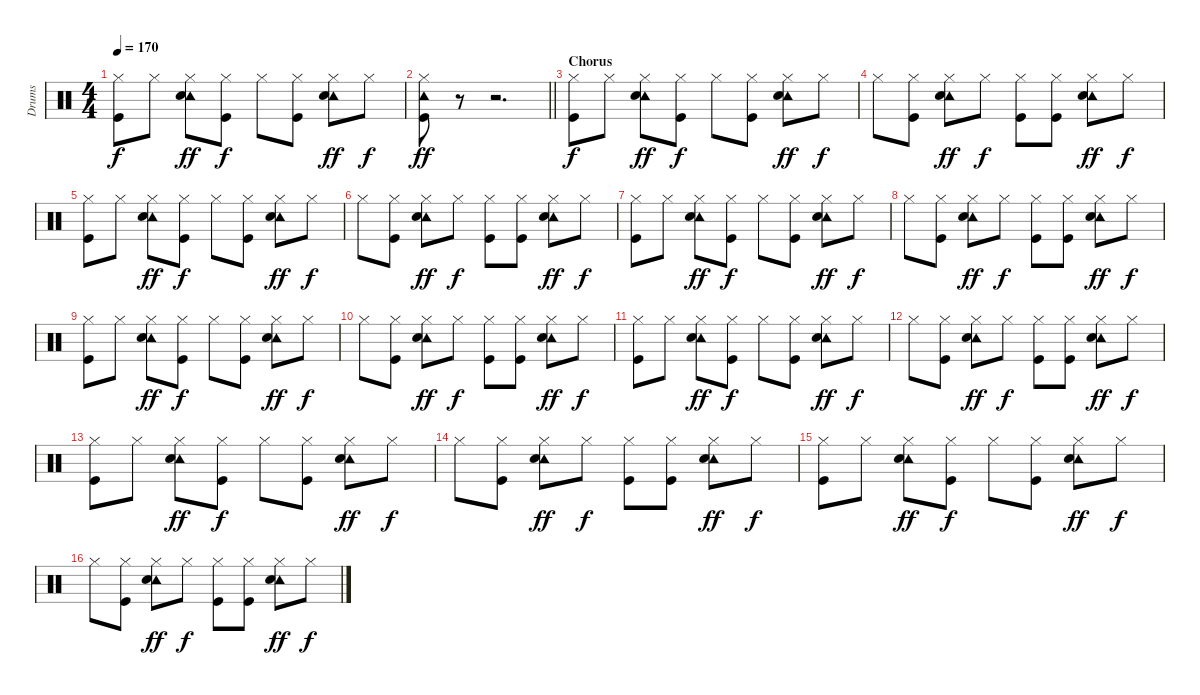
\track ("Drums" "Drums") {instrument percussion}
\staff {score}
\articulation defaults
\ts (4 4)
\tempo 170
\clef neutral
\ks c
("Hi-Hat (closed)" "Kick (hit)").8{dy f} "Hi-Hat (closed)".8 ("Tambourine (hit)" "Hi-Hat (closed)" "Snare (hit) 2").8{dy ff} ("Hi-Hat (closed)" "Kick (hit)").8{dy f} "Hi-Hat (closed)".8 ("Hi-Hat (closed)" "Kick (hit)").8 ("Tambourine (hit)" "Hi-Hat (closed)" "Snare (hit) 2").8{dy ff} "Hi-Hat (closed)".8{dy f} |
\barLineRight lightlight
("Tambourine (hit)" "Hi-Hat (closed)" "Kick (hit)").8{dy ff} r.8 r.2{d} |
\section ("" "Chorus")
("Hi-Hat (closed)" "Kick (hit)").8{dy f} "Hi-Hat (closed)".8 ("Tambourine (hit)" "Hi-Hat (closed)" "Snare (hit) 2").8{dy ff} ("Hi-Hat (closed)" "Kick (hit)").8{dy f} "Hi-Hat (closed)".8 ("Hi-Hat (closed)" "Kick (hit)").8 ("Tambourine (hit)" "Hi-Hat (closed)" "Snare (hit) 2").8{dy ff} "Hi-Hat (closed)".8{dy f} |
"Hi-Hat (closed)".8 ("Hi-Hat (closed)" "Kick (hit)").8 ("Tambourine (hit)" "Hi-Hat (closed)" "Snare (hit) 2").8{dy ff} "Hi-Hat (closed)".8{dy f} ("Hi-Hat (closed)" "Kick (hit)").8 ("Hi-Hat (closed)" "Kick (hit)").8 ("Tambourine (hit)" "Hi-Hat (closed)" "Snare (hit) 2").8{dy ff} "Hi-Hat (closed)".8{dy f} |
("Hi-Hat (closed)" "Kick (hit)").8 "Hi-Hat (closed)".8 ("Tambourine (hit)" "Hi-Hat (closed)" "Snare (hit) 2").8{dy ff} ("Hi-Hat (closed)" "Kick (hit)").8{dy f} "Hi-Hat (closed)".8 ("Hi-Hat (closed)" "Kick (hit)").8 ("Tambourine (hit)" "Hi-Hat (closed)" "Snare (hit) 2").8{dy ff} "Hi-Hat (closed)".8{dy f} |
"Hi-Hat (closed)".8 ("Hi-Hat (closed)" "Kick (hit)").8 ("Tambourine (hit)" "Hi-Hat (closed)" "Snare (hit) 2").8{dy ff} "Hi-Hat (closed)".8{dy f} ("Hi-Hat (closed)" "Kick (hit)").8 ("Hi-Hat (closed)" "Kick (hit)").8 ("Tambourine (hit)" "Hi-Hat (closed)" "Snare (hit) 2").8{dy ff} "Hi-Hat (closed)".8{dy f} |
("Hi-Hat (closed)" "Kick (hit)").8 "Hi-Hat (closed)".8 ("Tambourine (hit)" "Hi-Hat (closed)" "Snare (hit) 2").8{dy ff} ("Hi-Hat (closed)" "Kick (hit)").8{dy f} "Hi-Hat (closed)".8 ("Hi-Hat (closed)" "Kick (hit)").8 ("Tambourine (hit)" "Hi-Hat (closed)" "Snare (hit) 2").8{dy ff} "Hi-Hat (closed)".8{dy f} |
"Hi-Hat (closed)".8 ("Hi-Hat (closed)" "Kick (hit)").8 ("Tambourine (hit)" "Hi-Hat (closed)" "Snare (hit) 2").8{dy ff} "Hi-Hat (closed)".8{dy f} ("Hi-Hat (closed)" "Kick (hit)").8 ("Hi-Hat (closed)" "Kick (hit)").8 ("Tambourine (hit)" "Hi-Hat (closed)" "Snare (hit) 2").8{dy ff} "Hi-Hat (closed)".8{dy f} |
("Hi-Hat (closed)" "Kick (hit)").8 "Hi-Hat (closed)".8 ("Tambourine (hit)" "Hi-Hat (closed)" "Snare (hit) 2").8{dy ff} ("Hi-Hat (closed)" "Kick (hit)").8{dy f} "Hi-Hat (closed)".8 ("Hi-Hat (closed)" "Kick (hit)").8 ("Tambourine (hit)" "Hi-Hat (closed)" "Snare (hit) 2").8{dy ff} "Hi-Hat (closed)".8{dy f} |
"Hi-Hat (closed)".8 ("Hi-Hat (closed)" "Kick (hit)").8 ("Tambourine (hit)" "Hi-Hat (closed)" "Snare (hit) 2").8{dy ff} "Hi-Hat (closed)".8{dy f} ("Hi-Hat (closed)" "Kick (hit)").8 ("Hi-Hat (closed)" "Kick (hit)").8 ("Tambourine (hit)" "Hi-Hat (closed)" "Snare (hit) 2").8{dy ff} "Hi-Hat (closed)".8{dy f} |
("Hi-Hat (closed)" "Kick (hit)").8 "Hi-Hat (closed)".8 ("Tambourine (hit)" "Hi-Hat (closed)" "Snare (hit) 2").8{dy ff} ("Hi-Hat (closed)" "Kick (hit)").8{dy f} "Hi-Hat (closed)".8 ("Hi-Hat (closed)" "Kick (hit)").8 ("Tambourine (hit)" "Hi-Hat (closed)" "Snare (hit) 2").8{dy ff} "Hi-Hat (closed)".8{dy f} |
"Hi-Hat (closed)".8 ("Hi-Hat (closed)" "Kick (hit)").8 ("Tambourine (hit)" "Hi-Hat (closed)" "Snare (hit) 2").8{dy ff} "Hi-Hat (closed)".8{dy f} ("Hi-Hat (closed)" "Kick (hit)").8 ("Hi-Hat (closed)" "Kick (hit)").8 ("Tambourine (hit)" "Hi-Hat (closed)" "Snare (hit) 2").8{dy ff} "Hi-Hat (closed)".8{dy f} |
("Hi-Hat (closed)" "Kick (hit)").8 "Hi-Hat (closed)".8 ("Tambourine (hit)" "Hi-Hat (closed)" "Snare (hit) 2").8{dy ff} ("Hi-Hat (closed)" "Kick (hit)").8{dy f} "Hi-Hat (closed)".8 ("Hi-Hat (closed)" "Kick (hit)").8 ("Tambourine (hit)" "Hi-Hat (closed)" "Snare (hit) 2").8{dy ff} "Hi-Hat (closed)".8{dy f} |
"Hi-Hat (closed)".8 ("Hi-Hat (closed)" "Kick (hit)").8 ("Tambourine (hit)" "Hi-Hat (closed)" "Snare (hit) 2").8{dy ff} "Hi-Hat (closed)".8{dy f} ("Hi-Hat (closed)" "Kick (hit)").8 ("Hi-Hat (closed)" "Kick (hit)").8 ("Tambourine (hit)" "Hi-Hat (closed)" "Snare (hit) 2").8{dy ff} "Hi-Hat (closed)".8{dy f} |
("Hi-Hat (closed)" "Kick (hit)").8 "Hi-Hat (closed)".8 ("Tambourine (hit)" "Hi-Hat (closed)" "Snare (hit) 2").8{dy ff} ("Hi-Hat (closed)" "Kick (hit)").8{dy f} "Hi-Hat (closed)".8 ("Hi-Hat (closed)" "Kick (hit)").8 ("Tambourine (hit)" "Hi-Hat (closed)" "Snare (hit) 2").8{dy ff} "Hi-Hat (closed)".8{dy f} |
"Hi-Hat (closed)".8 ("Hi-Hat (closed)" "Kick (hit)").8 ("Tambourine (hit)" "Hi-Hat (closed)" "Snare (hit) 2").8{dy ff} "Hi-Hat (closed)".8{dy f} ("Hi-Hat (closed)" "Kick (hit)").8 ("Hi-Hat (closed)" "Kick (hit)").8 ("Tambourine (hit)" "Hi-Hat (closed)" "Snare (hit) 2").8{dy ff} "Hi-Hat (closed)".8{dy f}
